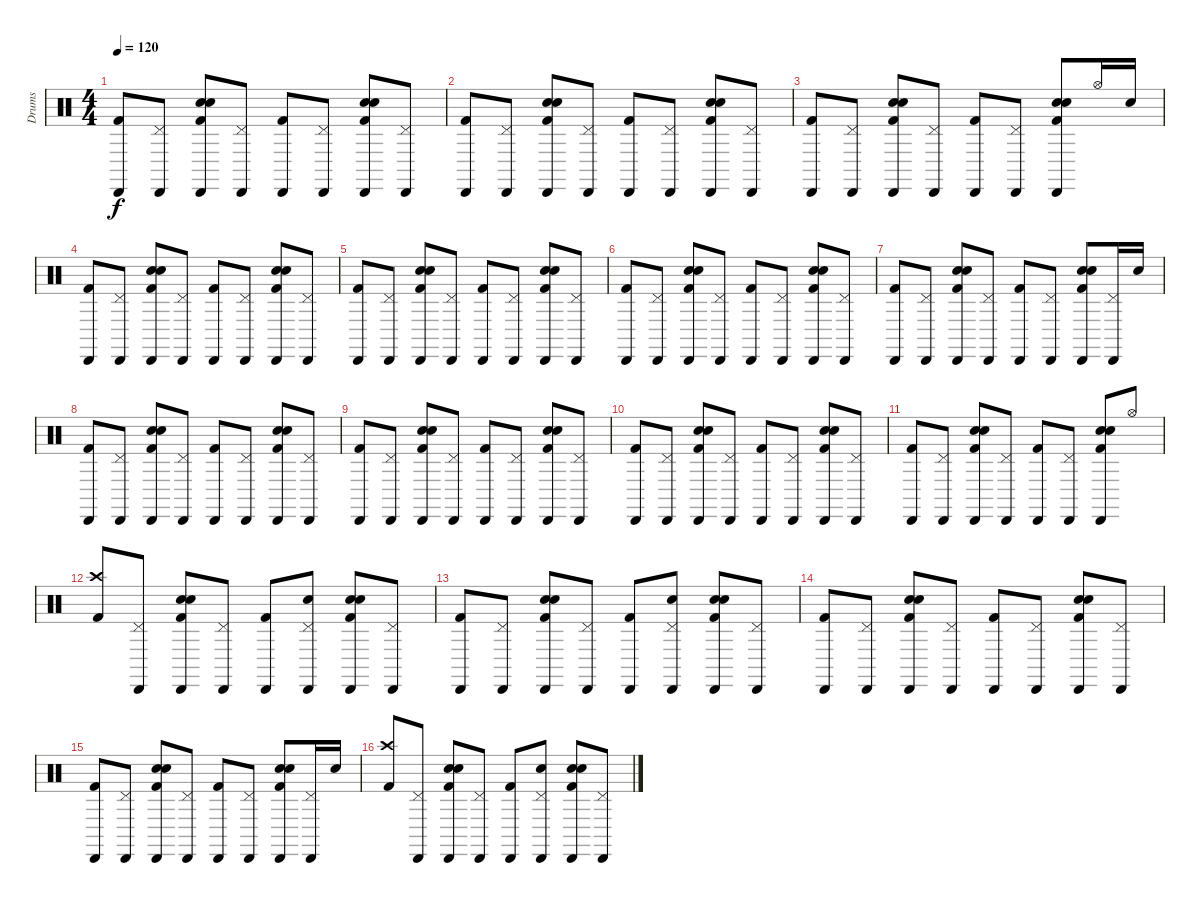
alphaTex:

\track ("Drums" "Drums") {instrument percussion}
\staff {score}
\articulation defaults
\ts (4 4)
\tempo 120
\clef neutral
\ks c
("Cabasa (hit)" "Kick (hit) 2").8{dy f} ("Cabasa (hit)" "Pedal Hi-Hat (hit)").8 ("Hand Clap (hit)" "Cabasa (hit)" "Electric Snare (hit)" "Kick (hit) 2").8 ("Cabasa (hit)" "Pedal Hi-Hat (hit)").8 ("Cabasa (hit)" "Kick (hit) 2").8 ("Cabasa (hit)" "Pedal Hi-Hat (hit)").8 ("Hand Clap (hit)" "Cabasa (hit)" "Electric Snare (hit)" "Kick (hit) 2").8 ("Cabasa (hit)" "Pedal Hi-Hat (hit)").8 |
("Cabasa (hit)" "Kick (hit) 2").8 ("Cabasa (hit)" "Pedal Hi-Hat (hit)").8 ("Hand Clap (hit)" "Cabasa (hit)" "Electric Snare (hit)" "Kick (hit) 2").8 ("Cabasa (hit)" "Pedal Hi-Hat (hit)").8 ("Cabasa (hit)" "Kick (hit) 2").8 ("Cabasa (hit)" "Pedal Hi-Hat (hit)").8 ("Hand Clap (hit)" "Cabasa (hit)" "Electric Snare (hit)" "Kick (hit) 2").8 ("Cabasa (hit)" "Pedal Hi-Hat (hit)").8 |
("Cabasa (hit)" "Kick (hit) 2").8 ("Cabasa (hit)" "Pedal Hi-Hat (hit)").8 ("Hand Clap (hit)" "Cabasa (hit)" "Electric Snare (hit)" "Kick (hit) 2").8 ("Cabasa (hit)" "Pedal Hi-Hat (hit)").8 ("Cabasa (hit)" "Kick (hit) 2").8 ("Cabasa (hit)" "Pedal Hi-Hat (hit)").8 ("Hand Clap (hit)" "Cabasa (hit)" "Electric Snare (hit)" "Kick (hit) 2").8 "Hi-Hat (open)".16 "Electric Snare (hit)".16 |
("Cabasa (hit)" "Kick (hit) 2").8 ("Cabasa (hit)" "Pedal Hi-Hat (hit)").8 ("Hand Clap (hit)" "Cabasa (hit)" "Electric Snare (hit)" "Kick (hit) 2").8 ("Cabasa (hit)" "Pedal Hi-Hat (hit)").8 ("Cabasa (hit)" "Kick (hit) 2").8 ("Cabasa (hit)" "Pedal Hi-Hat (hit)").8 ("Hand Clap (hit)" "Cabasa (hit)" "Electric Snare (hit)" "Kick (hit) 2").8 ("Cabasa (hit)" "Pedal Hi-Hat (hit)").8 |
("Cabasa (hit)" "Kick (hit) 2").8 ("Cabasa (hit)" "Pedal Hi-Hat (hit)").8 ("Hand Clap (hit)" "Cabasa (hit)" "Electric Snare (hit)" "Kick (hit) 2").8 ("Cabasa (hit)" "Pedal Hi-Hat (hit)").8 ("Cabasa (hit)" "Kick (hit) 2").8 ("Cabasa (hit)" "Pedal Hi-Hat (hit)").8 ("Hand Clap (hit)" "Cabasa (hit)" "Electric Snare (hit)" "Kick (hit) 2").8 ("Cabasa (hit)" "Pedal Hi-Hat (hit)").8 |
("Cabasa (hit)" "Kick (hit) 2").8 ("Cabasa (hit)" "Pedal Hi-Hat (hit)").8 ("Hand Clap (hit)" "Cabasa (hit)" "Electric Snare (hit)" "Kick (hit) 2").8 ("Cabasa (hit)" "Pedal Hi-Hat (hit)").8 ("Cabasa (hit)" "Kick (hit) 2").8 ("Cabasa (hit)" "Pedal Hi-Hat (hit)").8 ("Hand Clap (hit)" "Cabasa (hit)" "Electric Snare (hit)" "Kick (hit) 2").8 ("Cabasa (hit)" "Pedal Hi-Hat (hit)").8 |
("Cabasa (hit)" "Kick (hit) 2").8 ("Cabasa (hit)" "Pedal Hi-Hat (hit)").8 ("Hand Clap (hit)" "Cabasa (hit)" "Electric Snare (hit)" "Kick (hit) 2").8 ("Cabasa (hit)" "Pedal Hi-Hat (hit)").8 ("Cabasa (hit)" "Kick (hit) 2").8 ("Cabasa (hit)" "Pedal Hi-Hat (hit)").8 ("Hand Clap (hit)" "Cabasa (hit)" "Electric Snare (hit)" "Kick (hit) 2").8 ("Cabasa (hit)" "Pedal Hi-Hat (hit)").16 "Electric Snare (hit)".16 |
("Cabasa (hit)" "Kick (hit) 2").8 ("Cabasa (hit)" "Pedal Hi-Hat (hit)").8 ("Hand Clap (hit)" "Cabasa (hit)" "Electric Snare (hit)" "Kick (hit) 2").8 ("Cabasa (hit)" "Pedal Hi-Hat (hit)").8 ("Cabasa (hit)" "Kick (hit) 2").8 ("Cabasa (hit)" "Pedal Hi-Hat (hit)").8 ("Hand Clap (hit)" "Cabasa (hit)" "Electric Snare (hit)" "Kick (hit) 2").8 ("Cabasa (hit)" "Pedal Hi-Hat (hit)").8 |
("Cabasa (hit)" "Kick (hit) 2").8 ("Cabasa (hit)" "Pedal Hi-Hat (hit)").8 ("Hand Clap (hit)" "Cabasa (hit)" "Electric Snare (hit)" "Kick (hit) 2").8 ("Cabasa (hit)" "Pedal Hi-Hat (hit)").8 ("Cabasa (hit)" "Kick (hit) 2").8 ("Cabasa (hit)" "Pedal Hi-Hat (hit)").8 ("Hand Clap (hit)" "Cabasa (hit)" "Electric Snare (hit)" "Kick (hit) 2").8 ("Cabasa (hit)" "Pedal Hi-Hat (hit)").8 |
("Cabasa (hit)" "Kick (hit) 2").8 ("Cabasa (hit)" "Pedal Hi-Hat (hit)").8 ("Hand Clap (hit)" "Cabasa (hit)" "Electric Snare (hit)" "Kick (hit) 2").8 ("Cabasa (hit)" "Pedal Hi-Hat (hit)").8 ("Cabasa (hit)" "Kick (hit) 2").8 ("Cabasa (hit)" "Pedal Hi-Hat (hit)").8 ("Hand Clap (hit)" "Cabasa (hit)" "Electric Snare (hit)" "Kick (hit) 2").8 ("Cabasa (hit)" "Pedal Hi-Hat (hit)").8 |
("Cabasa (hit)" "Kick (hit) 2").8 ("Cabasa (hit)" "Pedal Hi-Hat (hit)").8 ("Hand Clap (hit)" "Cabasa (hit)" "Electric Snare (hit)" "Kick (hit) 2").8 ("Cabasa (hit)" "Pedal Hi-Hat (hit)").8 ("Cabasa (hit)" "Kick (hit) 2").8 ("Cabasa (hit)" "Pedal Hi-Hat (hit)").8 ("Hand Clap (hit)" "Cabasa (hit)" "Electric Snare (hit)" "Kick (hit) 2").8 "Hi-Hat (open)".8 |
("Crash high (hit)" "Kick (hit) 2").8 ("Cabasa (hit)" "Pedal Hi-Hat (hit)").8 ("Hand Clap (hit)" "Cabasa (hit)" "Electric Snare (hit)" "Kick (hit) 2").8 ("Cabasa (hit)" "Pedal Hi-Hat (hit)").8 ("Cabasa (hit)" "Kick (hit) 2").8 ("Hand Clap (hit)" "Cabasa (hit)" "Pedal Hi-Hat (hit)").8 ("Hand Clap (hit)" "Cabasa (hit)" "Electric Snare (hit)" "Kick (hit) 2").8 ("Cabasa (hit)" "Pedal Hi-Hat (hit)").8 |
("Cabasa (hit)" "Kick (hit) 2").8 ("Cabasa (hit)" "Pedal Hi-Hat (hit)").8 ("Hand Clap (hit)" "Cabasa (hit)" "Electric Snare (hit)" "Kick (hit) 2").8 ("Cabasa (hit)" "Pedal Hi-Hat (hit)").8 ("Cabasa (hit)" "Kick (hit) 2").8 ("Hand Clap (hit)" "Cabasa (hit)" "Pedal Hi-Hat (hit)").8 ("Hand Clap (hit)" "Cabasa (hit)" "Electric Snare (hit)" "Kick (hit) 2").8 ("Cabasa (hit)" "Pedal Hi-Hat (hit)").8 |
("Cabasa (hit)" "Kick (hit) 2").8 ("Cabasa (hit)" "Pedal Hi-Hat (hit)").8 ("Hand Clap (hit)" "Cabasa (hit)" "Electric Snare (hit)" "Kick (hit) 2").8 ("Cabasa (hit)" "Pedal Hi-Hat (hit)").8 ("Cabasa (hit)" "Kick (hit) 2").8 ("Cabasa (hit)" "Pedal Hi-Hat (hit)").8 ("Hand Clap (hit)" "Cabasa (hit)" "Electric Snare (hit)" "Kick (hit) 2").8 ("Cabasa (hit)" "Pedal Hi-Hat (hit)").8 |
("Cabasa (hit)" "Kick (hit) 2").8 ("Cabasa (hit)" "Pedal Hi-Hat (hit)").8 ("Hand Clap (hit)" "Cabasa (hit)" "Electric Snare (hit)" "Kick (hit) 2").8 ("Cabasa (hit)" "Pedal Hi-Hat (hit)").8 ("Cabasa (hit)" "Kick (hit) 2").8 ("Cabasa (hit)" "Pedal Hi-Hat (hit)").8 ("Hand Clap (hit)" "Cabasa (hit)" "Electric Snare (hit)" "Kick (hit) 2").8 ("Cabasa (hit)" "Pedal Hi-Hat (hit)").16 "Electric Snare (hit)".16 |
("Crash high (hit)" "Kick (hit) 2").8 ("Cabasa (hit)" "Pedal Hi-Hat (hit)").8 ("Hand Clap (hit)" "Cabasa (hit)" "Electric Snare (hit)" "Kick (hit) 2").8 ("Cabasa (hit)" "Pedal Hi-Hat (hit)").8 ("Cabasa (hit)" "Kick (hit) 2").8 ("Hand Clap (hit)" "Cabasa (hit)" "Pedal Hi-Hat (hit)").8 ("Hand Clap (hit)" "Cabasa (hit)" "Electric Snare (hit)" "Kick (hit) 2").8 ("Cabasa (hit)" "Pedal Hi-Hat (hit)").8
